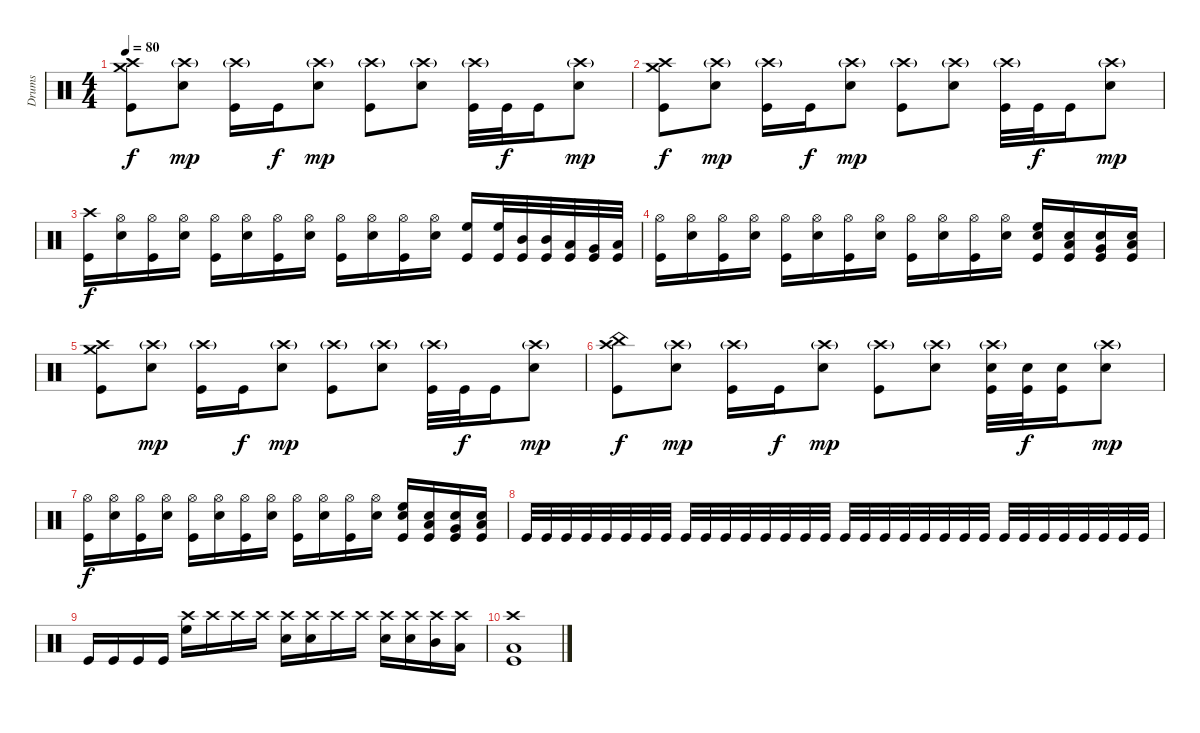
\track ("Drums" "Drums") {instrument percussion}
\staff {score}
\articulation defaults
\ts (4 4)
\tempo 80
\clef neutral
\ks c
("Crash high (hit)" "Crash medium (hit)" "Kick (hit)").8{dy f} ("Crash high (hit)"{g} "Electric Snare (hit)").8{dy mp} ("Crash high (hit)"{g} "Kick (hit)").16 "Kick (hit)".16{dy f} ("Crash high (hit)"{g} "Electric Snare (hit)").8{dy mp} ("Crash high (hit)"{g} "Kick (hit)").8 ("Crash high (hit)"{g} "Electric Snare (hit)").8 ("Crash high (hit)"{g} "Kick (hit)").32 "Kick (hit)".32{dy f} "Kick (hit)".16 ("Crash high (hit)"{g} "Electric Snare (hit)").8{dy mp} |
("Crash high (hit)" "Crash medium (hit)" "Kick (hit)").8{dy f} ("Crash high (hit)"{g} "Electric Snare (hit)").8{dy mp} ("Crash high (hit)"{g} "Kick (hit)").16 "Kick (hit)".16{dy f} ("Crash high (hit)"{g} "Electric Snare (hit)").8{dy mp} ("Crash high (hit)"{g} "Kick (hit)").8 ("Crash high (hit)"{g} "Electric Snare (hit)").8 ("Crash high (hit)"{g} "Kick (hit)").32 "Kick (hit)".32{dy f} "Kick (hit)".16 ("Crash high (hit)"{g} "Electric Snare (hit)").8{dy mp} |
("Crash high (hit)" "Kick (hit)").16{dy f} ("Hi-Hat (open)" "Electric Snare (hit)").16 ("Hi-Hat (open)" "Kick (hit)").16 ("Hi-Hat (open)" "Electric Snare (hit)").16 ("Hi-Hat (open)" "Kick (hit)").16 ("Hi-Hat (open)" "Electric Snare (hit)").16 ("Hi-Hat (open)" "Kick (hit)").16 ("Hi-Hat (open)" "Electric Snare (hit)").16 ("Hi-Hat (open)" "Kick (hit)").16 ("Hi-Hat (open)" "Electric Snare (hit)").16 ("Hi-Hat (open)" "Kick (hit)").16 ("Hi-Hat (open)" "Electric Snare (hit)").16 ("High Floor Tom (hit)" "Kick (hit)").16 ("High Floor Tom (hit)" "Kick (hit)").32 ("Mid Tom (hit)" "Kick (hit)").32 ("Mid Tom (hit)" "Kick (hit)").32 ("Low Tom (hit)" "Kick (hit)").32 ("Very Low Tom (hit)" "Kick (hit)").32 ("Low Floor Tom (hit)" "Kick (hit)").32 |
("Hi-Hat (open)" "Kick (hit)").16 ("Hi-Hat (open)" "Electric Snare (hit)").16 ("Hi-Hat (open)" "Kick (hit)").16 ("Hi-Hat (open)" "Electric Snare (hit)").16 ("Hi-Hat (open)" "Kick (hit)").16 ("Hi-Hat (open)" "Electric Snare (hit)").16 ("Hi-Hat (open)" "Kick (hit)").16 ("Hi-Hat (open)" "Electric Snare (hit)").16 ("Hi-Hat (open)" "Kick (hit)").16 ("Hi-Hat (open)" "Electric Snare (hit)").16 ("Hi-Hat (open)" "Kick (hit)").16 ("Hi-Hat (open)" "Electric Snare (hit)").16 ("High Floor Tom (hit)" "Electric Snare (hit)" "Kick (hit)").16 ("Low Tom (hit)" "Electric Snare (hit)" "Kick (hit)").16 ("Very Low Tom (hit)" "Electric Snare (hit)" "Kick (hit)").16 ("Low Floor Tom (hit)" "Electric Snare (hit)" "Kick (hit)").16 |
("Crash high (hit)" "Crash medium (hit)" "Kick (hit)").8 ("Crash high (hit)"{g} "Electric Snare (hit)").8{dy mp} ("Crash high (hit)"{g} "Kick (hit)").16 "Kick (hit)".16{dy f} ("Crash high (hit)"{g} "Electric Snare (hit)").8{dy mp} ("Crash high (hit)"{g} "Kick (hit)").8 ("Crash high (hit)"{g} "Electric Snare (hit)").8 ("Crash high (hit)"{g} "Kick (hit)").32 "Kick (hit)".32{dy f} "Kick (hit)".16 ("Crash high (hit)"{g} "Electric Snare (hit)").8{dy mp} |
("Crash high (hit)" "China (hit)" "Kick (hit)").8{dy f} ("Crash high (hit)"{g} "Electric Snare (hit)").8{dy mp} ("Crash high (hit)"{g} "Kick (hit)").16 "Kick (hit)".16{dy f} ("Crash high (hit)"{g} "Electric Snare (hit)").8{dy mp} ("Crash high (hit)"{g} "Kick (hit)").8 ("Crash high (hit)"{g} "Electric Snare (hit)").8 ("Crash high (hit)"{g} "Electric Snare (hit)" "Kick (hit)").32 ("Electric Snare (hit)" "Kick (hit)").32{dy f} ("Electric Snare (hit)" "Kick (hit)").16 ("Crash high (hit)"{g} "Electric Snare (hit)").8{dy mp} |
("Hi-Hat (open)" "Kick (hit)").16{dy f} ("Hi-Hat (open)" "Electric Snare (hit)").16 ("Hi-Hat (open)" "Kick (hit)").16 ("Hi-Hat (open)" "Electric Snare (hit)").16 ("Hi-Hat (open)" "Kick (hit)").16 ("Hi-Hat (open)" "Electric Snare (hit)").16 ("Hi-Hat (open)" "Kick (hit)").16 ("Hi-Hat (open)" "Electric Snare (hit)").16 ("Hi-Hat (open)" "Kick (hit)").16 ("Hi-Hat (open)" "Electric Snare (hit)").16 ("Hi-Hat (open)" "Kick (hit)").16 ("Hi-Hat (open)" "Electric Snare (hit)").16 ("High Floor Tom (hit)" "Electric Snare (hit)" "Kick (hit)").16 ("Low Tom (hit)" "Electric Snare (hit)" "Kick (hit)").16 ("Very Low Tom (hit)" "Electric Snare (hit)" "Kick (hit)").16 ("Low Floor Tom (hit)" "Electric Snare (hit)" "Kick (hit)").16 |
"Kick (hit)".32 "Kick (hit)".32 "Kick (hit)".32 "Kick (hit)".32 "Kick (hit)".32 "Kick (hit)".32 "Kick (hit)".32 "Kick (hit)".32 "Kick (hit)".32 "Kick (hit)".32 "Kick (hit)".32 "Kick (hit)".32 "Kick (hit)".32 "Kick (hit)".32 "Kick (hit)".32 "Kick (hit)".32 "Kick (hit)".32 "Kick (hit)".32 "Kick (hit)".32 "Kick (hit)".32 "Kick (hit)".32 "Kick (hit)".32 "Kick (hit)".32 "Kick (hit)".32 "Kick (hit)".32 "Kick (hit)".32 "Kick (hit)".32 "Kick (hit)".32 "Kick (hit)".32 "Kick (hit)".32 "Kick (hit)".32 "Kick (hit)".32 |
"Kick (hit)".16 "Kick (hit)".16 "Kick (hit)".16 "Kick (hit)".16 ("Crash high (hit)" "High Floor Tom (hit)").16 "Crash high (hit)".16 "Crash high (hit)".16 "Crash high (hit)".16 ("Crash high (hit)" "Electric Snare (hit)").16 ("Crash high (hit)" "Electric Snare (hit)").16 "Crash high (hit)".16 "Crash high (hit)".16 ("Crash high (hit)" "Electric Snare (hit)").16 ("Crash high (hit)" "Electric Snare (hit)").16 ("Crash high (hit)" "Mid Tom (hit)").16 ("Crash high (hit)" "Low Tom (hit)").16 |
("Crash high (hit)" "Low Floor Tom (hit)" "Kick (hit)").1
